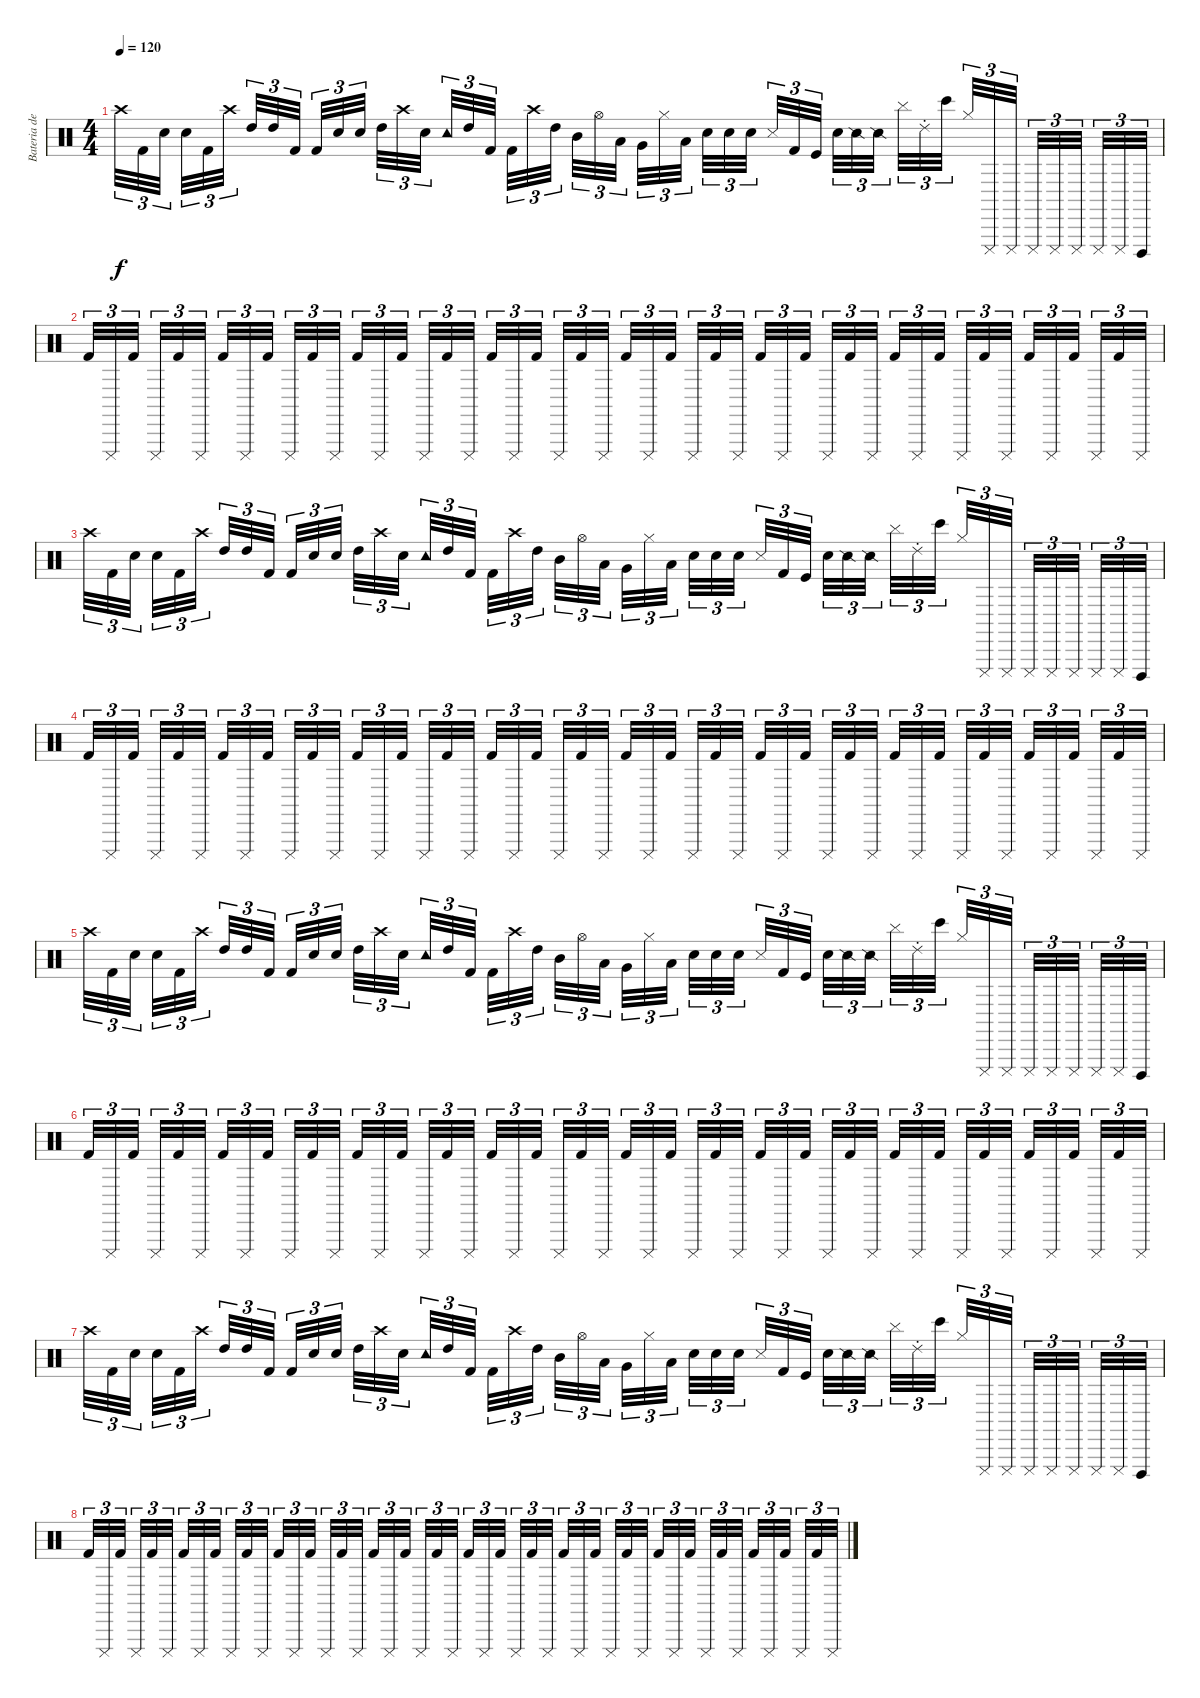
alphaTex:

\track ("Bateria de animal" "Bateria de") {instrument percussion}
\staff {score}
\articulation defaults
\ts (4 4)
\tempo 120
\clef neutral
\ks c "Crash high (hit)".32{tu (3 2) dy f} "Kick (hit) 2".32{tu (3 2)} "Electric Snare (hit)".32{tu (3 2)} "Electric Snare (hit)".32{tu (3 2)} "Kick (hit) 2".32{tu (3 2)} "Crash high (hit)".32{tu (3 2)} "High Tom (hit)".32{tu (3 2)} "High Tom (hit)".32{tu (3 2)} "Kick (hit) 2".32{tu (3 2)} "Kick (hit) 2".32{tu (3 2)} "Electric Snare (hit)".32{tu (3 2)} "Electric Snare (hit)".32{tu (3 2)} "High Tom (hit)".32{tu (3 2)} "Crash high (hit)".32{tu (3 2)} "Snare (hit) 2".32{tu (3 2)} "Tambourine (hit)".32{tu (3 2)} "High Tom (hit)".32{tu (3 2)} "Kick (hit) 2".32{tu (3 2)} "Kick (hit) 2".32{tu (3 2)} "Crash high (hit)".32{tu (3 2)} "High Tom (hit)".32{tu (3 2)} "Mid Tom (hit)".32{tu (3 2)} "Hi-Hat (open)".32{tu (3 2)} "Low Tom (hit)".32{tu (3 2)} "Very Low Tom (hit)".32{tu (3 2)} "Hi-Hat (closed)".32{tu (3 2)} "Low Floor Tom (hit)".32{tu (3 2)} "Electric Snare (hit)".32{tu (3 2)} "Hand Clap (hit)".32{tu (3 2)} "Snare (hit) 2".32{tu (3 2)} "Snare (side stick) 3".32{tu (3 2)} "Kick (hit) 2".32{tu (3 2)} "Kick (hit)".32{tu (3 2)} "Metronome (bell)".32{tu (3 2)} "Snare (side stick) 2".32{tu (3 2)} "Snare (side stick) 2".32{tu (3 2)} "Cymbal (hit)".32{tu (3 2)} "Ride (choke) 2".32{tu (3 2)} "Bongo High (hit)".32{tu (3 2)} "Hi-Hat (closed)".32{tu (3 2)} "Cuica (mute)".32{tu (3 2)} "Cuica (mute)".32{tu (3 2)} "Cuica (mute)".32{tu (3 2)} "Cuica (mute)".32{tu (3 2)} "Cuica (mute)".32{tu (3 2)} "Cuica (mute)".32{tu (3 2)} "Cuica (mute)".32{tu (3 2)} "Cuica (open)".32{tu (3 2)}
|
"Kick (hit) 2".32{tu (3 2)} "Cuica (mute)".32{tu (3 2)} "Kick (hit) 2".32{tu (3 2)} "Cuica (mute)".32{tu (3 2)} "Kick (hit) 2".32{tu (3 2)} "Cuica (mute)".32{tu (3 2)} "Kick (hit) 2".32{tu (3 2)} "Cuica (mute)".32{tu (3 2)} "Kick (hit) 2".32{tu (3 2)} "Cuica (mute)".32{tu (3 2)} "Kick (hit) 2".32{tu (3 2)} "Cuica (mute)".32{tu (3 2)} "Kick (hit) 2".32{tu (3 2)} "Cuica (mute)".32{tu (3 2)} "Kick (hit) 2".32{tu (3 2)} "Cuica (mute)".32{tu (3 2)} "Kick (hit) 2".32{tu (3 2)} "Cuica (mute)".32{tu (3 2)} "Kick (hit) 2".32{tu (3 2)} "Cuica (mute)".32{tu (3 2)} "Kick (hit) 2".32{tu (3 2)} "Cuica (mute)".32{tu (3 2)} "Kick (hit) 2".32{tu (3 2)} "Cuica (mute)".32{tu (3 2)} "Kick (hit) 2".32{tu (3 2)} "Cuica (mute)".32{tu (3 2)} "Kick (hit) 2".32{tu (3 2)} "Cuica (mute)".32{tu (3 2)} "Kick (hit) 2".32{tu (3 2)} "Cuica (mute)".32{tu (3 2)} "Kick (hit) 2".32{tu (3 2)} "Cuica (mute)".32{tu (3 2)} "Kick (hit) 2".32{tu (3 2)} "Cuica (mute)".32{tu (3 2)} "Kick (hit) 2".32{tu (3 2)} "Cuica (mute)".32{tu (3 2)} "Kick (hit) 2".32{tu (3 2)} "Cuica (mute)".32{tu (3 2)} "Kick (hit) 2".32{tu (3 2)} "Cuica (mute)".32{tu (3 2)} "Kick (hit) 2".32{tu (3 2)} "Cuica (mute)".32{tu (3 2)} "Kick (hit) 2".32{tu (3 2)} "Cuica (mute)".32{tu (3 2)} "Kick (hit) 2".32{tu (3 2)} "Cuica (mute)".32{tu (3 2)} "Kick (hit) 2".32{tu (3 2)} "Cuica (mute)".32{tu (3 2)} |
"Crash high (hit)".32{tu (3 2)} "Kick (hit) 2".32{tu (3 2)} "Electric Snare (hit)".32{tu (3 2)} "Electric Snare (hit)".32{tu (3 2)} "Kick (hit) 2".32{tu (3 2)} "Crash high (hit)".32{tu (3 2)} "High Tom (hit)".32{tu (3 2)} "High Tom (hit)".32{tu (3 2)} "Kick (hit) 2".32{tu (3 2)} "Kick (hit) 2".32{tu (3 2)} "Electric Snare (hit)".32{tu (3 2)} "Electric Snare (hit)".32{tu (3 2)} "High Tom (hit)".32{tu (3 2)} "Crash high (hit)".32{tu (3 2)} "Snare (hit) 2".32{tu (3 2)} "Tambourine (hit)".32{tu (3 2)} "High Tom (hit)".32{tu (3 2)} "Kick (hit) 2".32{tu (3 2)} "Kick (hit) 2".32{tu (3 2)} "Crash high (hit)".32{tu (3 2)} "High Tom (hit)".32{tu (3 2)} "Mid Tom (hit)".32{tu (3 2)} "Hi-Hat (open)".32{tu (3 2)} "Low Tom (hit)".32{tu (3 2)} "Very Low Tom (hit)".32{tu (3 2)} "Hi-Hat (closed)".32{tu (3 2)} "Low Floor Tom (hit)".32{tu (3 2)} "Electric Snare (hit)".32{tu (3 2)} "Hand Clap (hit)".32{tu (3 2)} "Snare (hit) 2".32{tu (3 2)} "Snare (side stick) 3".32{tu (3 2)} "Kick (hit) 2".32{tu (3 2)} "Kick (hit)".32{tu (3 2)} "Metronome (bell)".32{tu (3 2)} "Snare (side stick) 2".32{tu (3 2)} "Snare (side stick) 2".32{tu (3 2)} "Cymbal (hit)".32{tu (3 2)} "Ride (choke) 2".32{tu (3 2)} "Bongo High (hit)".32{tu (3 2)} "Hi-Hat (closed)".32{tu (3 2)} "Cuica (mute)".32{tu (3 2)} "Cuica (mute)".32{tu (3 2)} "Cuica (mute)".32{tu (3 2)} "Cuica (mute)".32{tu (3 2)} "Cuica (mute)".32{tu (3 2)} "Cuica (mute)".32{tu (3 2)} "Cuica (mute)".32{tu (3 2)} "Cuica (open)".32{tu (3 2)} |
"Kick (hit) 2".32{tu (3 2)} "Cuica (mute)".32{tu (3 2)} "Kick (hit) 2".32{tu (3 2)} "Cuica (mute)".32{tu (3 2)} "Kick (hit) 2".32{tu (3 2)} "Cuica (mute)".32{tu (3 2)} "Kick (hit) 2".32{tu (3 2)} "Cuica (mute)".32{tu (3 2)} "Kick (hit) 2".32{tu (3 2)} "Cuica (mute)".32{tu (3 2)} "Kick (hit) 2".32{tu (3 2)} "Cuica (mute)".32{tu (3 2)} "Kick (hit) 2".32{tu (3 2)} "Cuica (mute)".32{tu (3 2)} "Kick (hit) 2".32{tu (3 2)} "Cuica (mute)".32{tu (3 2)} "Kick (hit) 2".32{tu (3 2)} "Cuica (mute)".32{tu (3 2)} "Kick (hit) 2".32{tu (3 2)} "Cuica (mute)".32{tu (3 2)} "Kick (hit) 2".32{tu (3 2)} "Cuica (mute)".32{tu (3 2)} "Kick (hit) 2".32{tu (3 2)} "Cuica (mute)".32{tu (3 2)} "Kick (hit) 2".32{tu (3 2)} "Cuica (mute)".32{tu (3 2)} "Kick (hit) 2".32{tu (3 2)} "Cuica (mute)".32{tu (3 2)} "Kick (hit) 2".32{tu (3 2)} "Cuica (mute)".32{tu (3 2)} "Kick (hit) 2".32{tu (3 2)} "Cuica (mute)".32{tu (3 2)} "Kick (hit) 2".32{tu (3 2)} "Cuica (mute)".32{tu (3 2)} "Kick (hit) 2".32{tu (3 2)} "Cuica (mute)".32{tu (3 2)} "Kick (hit) 2".32{tu (3 2)} "Cuica (mute)".32{tu (3 2)} "Kick (hit) 2".32{tu (3 2)} "Cuica (mute)".32{tu (3 2)} "Kick (hit) 2".32{tu (3 2)} "Cuica (mute)".32{tu (3 2)} "Kick (hit) 2".32{tu (3 2)} "Cuica (mute)".32{tu (3 2)} "Kick (hit) 2".32{tu (3 2)} "Cuica (mute)".32{tu (3 2)} "Kick (hit) 2".32{tu (3 2)} "Cuica (mute)".32{tu (3 2)} |
"Crash high (hit)".32{tu (3 2)} "Kick (hit) 2".32{tu (3 2)} "Electric Snare (hit)".32{tu (3 2)} "Electric Snare (hit)".32{tu (3 2)} "Kick (hit) 2".32{tu (3 2)} "Crash high (hit)".32{tu (3 2)} "High Tom (hit)".32{tu (3 2)} "High Tom (hit)".32{tu (3 2)} "Kick (hit) 2".32{tu (3 2)} "Kick (hit) 2".32{tu (3 2)} "Electric Snare (hit)".32{tu (3 2)} "Electric Snare (hit)".32{tu (3 2)} "High Tom (hit)".32{tu (3 2)} "Crash high (hit)".32{tu (3 2)} "Snare (hit) 2".32{tu (3 2)} "Tambourine (hit)".32{tu (3 2)} "High Tom (hit)".32{tu (3 2)} "Kick (hit) 2".32{tu (3 2)} "Kick (hit) 2".32{tu (3 2)} "Crash high (hit)".32{tu (3 2)} "High Tom (hit)".32{tu (3 2)} "Mid Tom (hit)".32{tu (3 2)} "Hi-Hat (open)".32{tu (3 2)} "Low Tom (hit)".32{tu (3 2)} "Very Low Tom (hit)".32{tu (3 2)} "Hi-Hat (closed)".32{tu (3 2)} "Low Floor Tom (hit)".32{tu (3 2)} "Electric Snare (hit)".32{tu (3 2)} "Hand Clap (hit)".32{tu (3 2)} "Snare (hit) 2".32{tu (3 2)} "Snare (side stick) 3".32{tu (3 2)} "Kick (hit) 2".32{tu (3 2)} "Kick (hit)".32{tu (3 2)} "Metronome (bell)".32{tu (3 2)} "Snare (side stick) 2".32{tu (3 2)} "Snare (side stick) 2".32{tu (3 2)} "Cymbal (hit)".32{tu (3 2)} "Ride (choke) 2".32{tu (3 2)} "Bongo High (hit)".32{tu (3 2)} "Hi-Hat (closed)".32{tu (3 2)} "Cuica (mute)".32{tu (3 2)} "Cuica (mute)".32{tu (3 2)} "Cuica (mute)".32{tu (3 2)} "Cuica (mute)".32{tu (3 2)} "Cuica (mute)".32{tu (3 2)} "Cuica (mute)".32{tu (3 2)} "Cuica (mute)".32{tu (3 2)} "Cuica (open)".32{tu (3 2)} |
"Kick (hit) 2".32{tu (3 2)} "Cuica (mute)".32{tu (3 2)} "Kick (hit) 2".32{tu (3 2)} "Cuica (mute)".32{tu (3 2)} "Kick (hit) 2".32{tu (3 2)} "Cuica (mute)".32{tu (3 2)} "Kick (hit) 2".32{tu (3 2)} "Cuica (mute)".32{tu (3 2)} "Kick (hit) 2".32{tu (3 2)} "Cuica (mute)".32{tu (3 2)} "Kick (hit) 2".32{tu (3 2)} "Cuica (mute)".32{tu (3 2)} "Kick (hit) 2".32{tu (3 2)} "Cuica (mute)".32{tu (3 2)} "Kick (hit) 2".32{tu (3 2)} "Cuica (mute)".32{tu (3 2)} "Kick (hit) 2".32{tu (3 2)} "Cuica (mute)".32{tu (3 2)} "Kick (hit) 2".32{tu (3 2)} "Cuica (mute)".32{tu (3 2)} "Kick (hit) 2".32{tu (3 2)} "Cuica (mute)".32{tu (3 2)} "Kick (hit) 2".32{tu (3 2)} "Cuica (mute)".32{tu (3 2)} "Kick (hit) 2".32{tu (3 2)} "Cuica (mute)".32{tu (3 2)} "Kick (hit) 2".32{tu (3 2)} "Cuica (mute)".32{tu (3 2)} "Kick (hit) 2".32{tu (3 2)} "Cuica (mute)".32{tu (3 2)} "Kick (hit) 2".32{tu (3 2)} "Cuica (mute)".32{tu (3 2)} "Kick (hit) 2".32{tu (3 2)} "Cuica (mute)".32{tu (3 2)} "Kick (hit) 2".32{tu (3 2)} "Cuica (mute)".32{tu (3 2)} "Kick (hit) 2".32{tu (3 2)} "Cuica (mute)".32{tu (3 2)} "Kick (hit) 2".32{tu (3 2)} "Cuica (mute)".32{tu (3 2)} "Kick (hit) 2".32{tu (3 2)} "Cuica (mute)".32{tu (3 2)} "Kick (hit) 2".32{tu (3 2)} "Cuica (mute)".32{tu (3 2)} "Kick (hit) 2".32{tu (3 2)} "Cuica (mute)".32{tu (3 2)} "Kick (hit) 2".32{tu (3 2)} "Cuica (mute)".32{tu (3 2)} |
"Crash high (hit)".32{tu (3 2)} "Kick (hit) 2".32{tu (3 2)} "Electric Snare (hit)".32{tu (3 2)} "Electric Snare (hit)".32{tu (3 2)} "Kick (hit) 2".32{tu (3 2)} "Crash high (hit)".32{tu (3 2)} "High Tom (hit)".32{tu (3 2)} "High Tom (hit)".32{tu (3 2)} "Kick (hit) 2".32{tu (3 2)} "Kick (hit) 2".32{tu (3 2)} "Electric Snare (hit)".32{tu (3 2)} "Electric Snare (hit)".32{tu (3 2)} "High Tom (hit)".32{tu (3 2)} "Crash high (hit)".32{tu (3 2)} "Snare (hit) 2".32{tu (3 2)} "Tambourine (hit)".32{tu (3 2)} "High Tom (hit)".32{tu (3 2)} "Kick (hit) 2".32{tu (3 2)} "Kick (hit) 2".32{tu (3 2)} "Crash high (hit)".32{tu (3 2)} "High Tom (hit)".32{tu (3 2)} "Mid Tom (hit)".32{tu (3 2)} "Hi-Hat (open)".32{tu (3 2)} "Low Tom (hit)".32{tu (3 2)} "Very Low Tom (hit)".32{tu (3 2)} "Hi-Hat (closed)".32{tu (3 2)} "Low Floor Tom (hit)".32{tu (3 2)} "Electric Snare (hit)".32{tu (3 2)} "Hand Clap (hit)".32{tu (3 2)} "Snare (hit) 2".32{tu (3 2)} "Snare (side stick) 3".32{tu (3 2)} "Kick (hit) 2".32{tu (3 2)} "Kick (hit)".32{tu (3 2)} "Metronome (bell)".32{tu (3 2)} "Snare (side stick) 2".32{tu (3 2)} "Snare (side stick) 2".32{tu (3 2)} "Cymbal (hit)".32{tu (3 2)} "Ride (choke) 2".32{tu (3 2)} "Bongo High (hit)".32{tu (3 2)} "Hi-Hat (closed)".32{tu (3 2)} "Cuica (mute)".32{tu (3 2)} "Cuica (mute)".32{tu (3 2)} "Cuica (mute)".32{tu (3 2)} "Cuica (mute)".32{tu (3 2)} "Cuica (mute)".32{tu (3 2)} "Cuica (mute)".32{tu (3 2)} "Cuica (mute)".32{tu (3 2)} "Cuica (open)".32{tu (3 2)} |
"Kick (hit) 2".32{tu (3 2)} "Cuica (mute)".32{tu (3 2)} "Kick (hit) 2".32{tu (3 2)} "Cuica (mute)".32{tu (3 2)} "Kick (hit) 2".32{tu (3 2)} "Cuica (mute)".32{tu (3 2)} "Kick (hit) 2".32{tu (3 2)} "Cuica (mute)".32{tu (3 2)} "Kick (hit) 2".32{tu (3 2)} "Cuica (mute)".32{tu (3 2)} "Kick (hit) 2".32{tu (3 2)} "Cuica (mute)".32{tu (3 2)} "Kick (hit) 2".32{tu (3 2)} "Cuica (mute)".32{tu (3 2)} "Kick (hit) 2".32{tu (3 2)} "Cuica (mute)".32{tu (3 2)} "Kick (hit) 2".32{tu (3 2)} "Cuica (mute)".32{tu (3 2)} "Kick (hit) 2".32{tu (3 2)} "Cuica (mute)".32{tu (3 2)} "Kick (hit) 2".32{tu (3 2)} "Cuica (mute)".32{tu (3 2)} "Kick (hit) 2".32{tu (3 2)} "Cuica (mute)".32{tu (3 2)} "Kick (hit) 2".32{tu (3 2)} "Cuica (mute)".32{tu (3 2)} "Kick (hit) 2".32{tu (3 2)} "Cuica (mute)".32{tu (3 2)} "Kick (hit) 2".32{tu (3 2)} "Cuica (mute)".32{tu (3 2)} "Kick (hit) 2".32{tu (3 2)} "Cuica (mute)".32{tu (3 2)} "Kick (hit) 2".32{tu (3 2)} "Cuica (mute)".32{tu (3 2)} "Kick (hit) 2".32{tu (3 2)} "Cuica (mute)".32{tu (3 2)} "Kick (hit) 2".32{tu (3 2)} "Cuica (mute)".32{tu (3 2)} "Kick (hit) 2".32{tu (3 2)} "Cuica (mute)".32{tu (3 2)} "Kick (hit) 2".32{tu (3 2)} "Cuica (mute)".32{tu (3 2)} "Kick (hit) 2".32{tu (3 2)} "Cuica (mute)".32{tu (3 2)} "Kick (hit) 2".32{tu (3 2)} "Cuica (mute)".32{tu (3 2)} "Kick (hit) 2".32{tu (3 2)} "Cuica (mute)".32{tu (3 2)}
